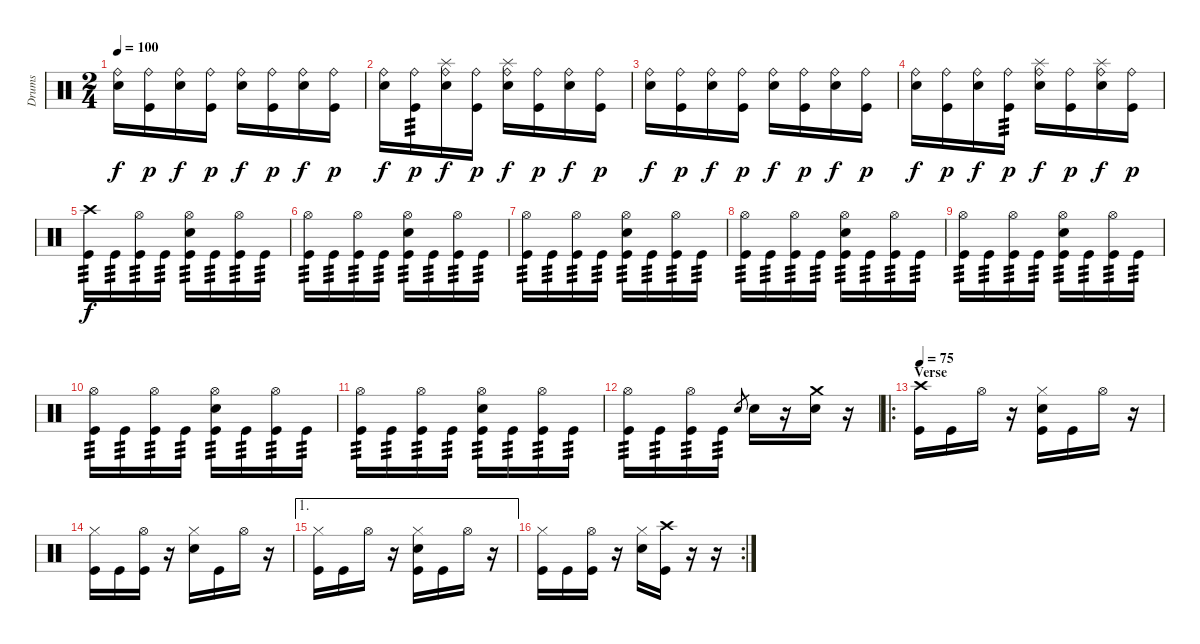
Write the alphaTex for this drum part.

\track ("Drums" "Drums") {instrument percussion}
\staff {score}
\articulation defaults
\ts (2 4)
\tempo 100
\clef neutral
\ks c
("Electric Snare (hit)" "Ride (bell)").16{dy f} ("Kick (hit)" "Ride (bell)").16{dy p} ("Electric Snare (hit)" "Ride (bell)").16{dy f} ("Kick (hit)" "Ride (bell)").16{dy p} ("Electric Snare (hit)" "Ride (bell)").16{dy f} ("Kick (hit)" "Ride (bell)").16{dy p} ("Electric Snare (hit)" "Ride (bell)").16{dy f} ("Kick (hit)" "Ride (bell)").16{dy p} |
("Electric Snare (hit)" "Ride (bell)").16{dy f} ("Kick (hit)" "Ride (bell)").16{tp 3 dy p} ("Electric Snare (hit)" "Splash (hit)" "Ride (bell)").16{dy f} ("Kick (hit)" "Ride (bell)").16{dy p} ("Electric Snare (hit)" "Splash (hit)" "Ride (bell)").16{dy f} ("Kick (hit)" "Ride (bell)").16{dy p} ("Electric Snare (hit)" "Ride (bell)").16{dy f} ("Kick (hit)" "Ride (bell)").16{dy p} |
("Electric Snare (hit)" "Ride (bell)").16{dy f} ("Kick (hit)" "Ride (bell)").16{dy p} ("Electric Snare (hit)" "Ride (bell)").16{dy f} ("Kick (hit)" "Ride (bell)").16{dy p} ("Electric Snare (hit)" "Ride (bell)").16{dy f} ("Kick (hit)" "Ride (bell)").16{dy p} ("Electric Snare (hit)" "Ride (bell)").16{dy f} ("Kick (hit)" "Ride (bell)").16{dy p} |
("Electric Snare (hit)" "Ride (bell)").16{dy f} ("Kick (hit)" "Ride (bell)").16{dy p} ("Electric Snare (hit)" "Ride (bell)").16{dy f} ("Kick (hit)" "Ride (bell)").16{tp 3 dy p} ("Electric Snare (hit)" "Splash (hit)" "Ride (bell)").16{dy f} ("Kick (hit)" "Ride (bell)").16{dy p} ("Electric Snare (hit)" "Splash (hit)" "Ride (bell)").16{dy f} ("Kick (hit)" "Ride (bell)").16{dy p} |
("Kick (hit)" "Crash high (hit)").16{tp 3 dy f} "Kick (hit)".16{tp 3} ("Kick (hit)" "Hi-Hat (open)").16{tp 3} "Kick (hit)".16{tp 3} ("Kick (hit)" "Hi-Hat (open)" "Electric Snare (hit)").16{tp 3} "Kick (hit)".16{tp 3} ("Kick (hit)" "Hi-Hat (open)").16{tp 3} "Kick (hit)".16{tp 3} |
("Kick (hit)" "Hi-Hat (open)").16{tp 3} "Kick (hit)".16{tp 3} ("Kick (hit)" "Hi-Hat (open)").16{tp 3} "Kick (hit)".16{tp 3} ("Kick (hit)" "Hi-Hat (open)" "Electric Snare (hit)").16{tp 3} "Kick (hit)".16{tp 3} ("Kick (hit)" "Hi-Hat (open)").16{tp 3} "Kick (hit)".16{tp 3} |
("Kick (hit)" "Hi-Hat (open)").16{tp 3} "Kick (hit)".16{tp 3} ("Kick (hit)" "Hi-Hat (open)").16{tp 3} "Kick (hit)".16{tp 3} ("Kick (hit)" "Hi-Hat (open)" "Electric Snare (hit)").16{tp 3} "Kick (hit)".16{tp 3} ("Kick (hit)" "Hi-Hat (open)").16{tp 3} "Kick (hit)".16{tp 3} |
("Kick (hit)" "Hi-Hat (open)").16{tp 3} "Kick (hit)".16{tp 3} ("Kick (hit)" "Hi-Hat (open)").16{tp 3} "Kick (hit)".16{tp 3} ("Kick (hit)" "Hi-Hat (open)" "Electric Snare (hit)").16{tp 3} "Kick (hit)".16{tp 3} ("Kick (hit)" "Hi-Hat (open)").16{tp 3} "Kick (hit)".16{tp 3} |
("Kick (hit)" "Hi-Hat (open)").16{tp 3} "Kick (hit)".16{tp 3} ("Kick (hit)" "Hi-Hat (open)").16{tp 3} "Kick (hit)".16{tp 3} ("Kick (hit)" "Hi-Hat (open)" "Electric Snare (hit)").16{tp 3} "Kick (hit)".16{tp 3} ("Kick (hit)" "Hi-Hat (open)").16{tp 3} "Kick (hit)".16{tp 3} |
("Kick (hit)" "Hi-Hat (open)").16{tp 3} "Kick (hit)".16{tp 3} ("Kick (hit)" "Hi-Hat (open)").16{tp 3} "Kick (hit)".16{tp 3} ("Kick (hit)" "Hi-Hat (open)" "Electric Snare (hit)").16{tp 3} "Kick (hit)".16{tp 3} ("Kick (hit)" "Hi-Hat (open)").16{tp 3} "Kick (hit)".16{tp 3} |
("Kick (hit)" "Hi-Hat (open)").16{tp 3} "Kick (hit)".16{tp 3} ("Kick (hit)" "Hi-Hat (open)").16{tp 3} "Kick (hit)".16{tp 3} ("Kick (hit)" "Hi-Hat (open)" "Electric Snare (hit)").16{tp 3} "Kick (hit)".16{tp 3} ("Kick (hit)" "Hi-Hat (open)").16{tp 3} "Kick (hit)".16{tp 3} |
("Kick (hit)" "Hi-Hat (open)").16{tp 3} "Kick (hit)".16{tp 3} ("Kick (hit)" "Hi-Hat (open)").16{tp 3} "Kick (hit)".16{tp 3} "Electric Snare (hit)".8{gr} "Electric Snare (hit)".16 r.16 ("Crash medium (hit)" "Electric Snare (hit)").16 r.16 |
\ro
\section ("" "Verse")
\tempo 75
("Kick (hit)" "Crash high (hit)").16 "Kick (hit)".16 "Hi-Hat (open)".16 r.16 ("Kick (hit)" "Hi-Hat (closed)" "Electric Snare (hit)").16 "Kick (hit)".16 "Hi-Hat (open)".16 r.16 |
("Kick (hit)" "Hi-Hat (closed)").16 "Kick (hit)".16 ("Kick (hit)" "Hi-Hat (open)").16 r.16 ("Electric Snare (hit)" "Hi-Hat (closed)").16 "Kick (hit)".16 "Hi-Hat (open)".16 r.16 |
\ae 1
("Kick (hit)" "Hi-Hat (closed)").16 "Kick (hit)".16 "Hi-Hat (open)".16 r.16 ("Kick (hit)" "Hi-Hat (closed)" "Electric Snare (hit)").16 "Kick (hit)".16 "Hi-Hat (open)".16 r.16 |
\rc 2
("Kick (hit)" "Hi-Hat (closed)").16 "Kick (hit)".16 ("Kick (hit)" "Hi-Hat (open)").16 r.16 ("Electric Snare (hit)" "Hi-Hat (closed)").16 ("Kick (hit)" "Crash high (hit)").16 r.16 r.16
